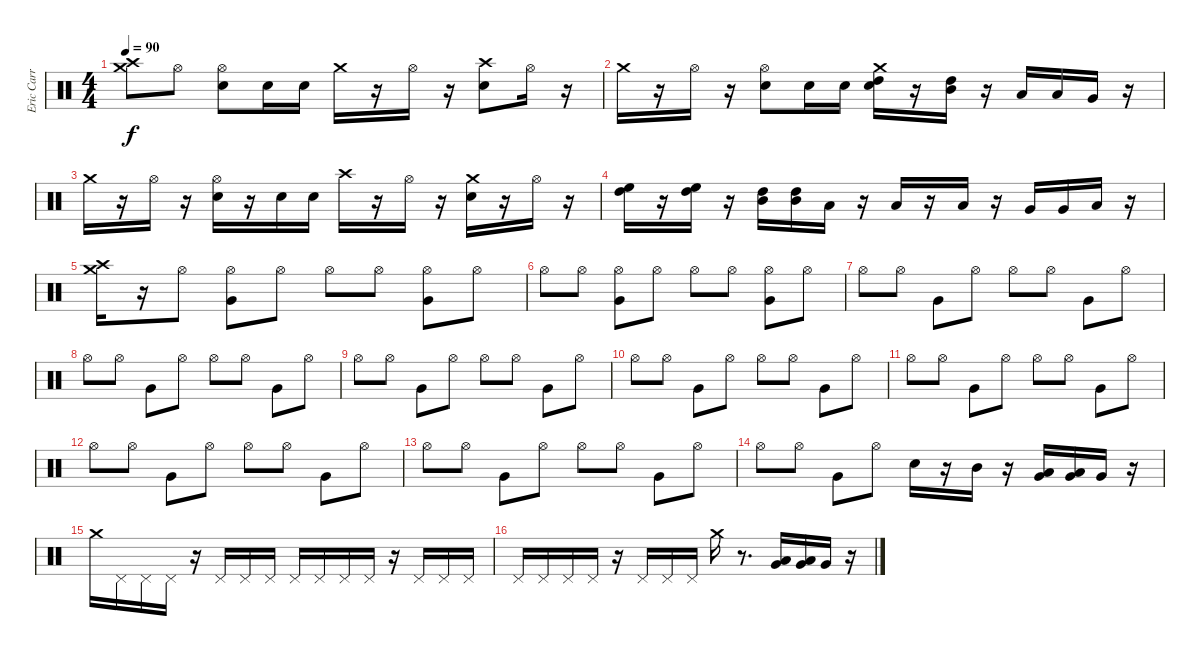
\track ("Eric Carr" "Eric Carr") {instrument percussion}
\staff {score}
\articulation defaults
\ts (4 4)
\tempo 90
\clef neutral
\ks c
("Crash medium (hit)" "Crash high (hit)").8{dy f} "Hi-Hat (open)".8 ("Hi-Hat (open)" "Electric Snare (hit)").8 "Electric Snare (hit)".16 "Electric Snare (hit)".16 "Crash medium (hit)".16 r.16 "Hi-Hat (open)".16 r.16 ("Crash high (hit)" "Electric Snare (hit)").8 "Hi-Hat (open)".16 r.16 |
"Crash medium (hit)".16 r.16 "Hi-Hat (open)".16 r.16 ("Hi-Hat (open)" "Electric Snare (hit)").8 "Electric Snare (hit)".16 "Electric Snare (hit)".16 ("Crash medium (hit)" "High Tom (hit)" "Electric Snare (hit)").16 r.16 ("High Tom (hit)" "Mid Tom (hit)").16 r.16 "Low Tom (hit)".16 "Low Tom (hit)".16 "Very Low Tom (hit)".16 r.16 |
"Crash medium (hit)".16 r.16 "Hi-Hat (open)".16 r.16 ("Hi-Hat (open)" "Electric Snare (hit)").16 r.16 "Electric Snare (hit)".16 "Electric Snare (hit)".16 "Crash high (hit)".16 r.16 "Hi-Hat (open)".16 r.16 ("Crash medium (hit)" "Electric Snare (hit)").16 r.16 "Hi-Hat (open)".16 r.16 |
("High Floor Tom (hit)" "High Tom (hit)").16 r.16 ("High Floor Tom (hit)" "High Tom (hit)").16 r.16 ("High Tom (hit)" "Mid Tom (hit)").16 ("High Tom (hit)" "Mid Tom (hit)").16 "Low Tom (hit)".16 r.16 "Low Tom (hit)".16 r.16 "Low Tom (hit)".16 r.16 "Very Low Tom (hit)".16 "Very Low Tom (hit)".16 "Low Floor Tom (hit)".16 r.16 |
("Crash medium (hit)" "Crash high (hit)").16 r.16 "Hi-Hat (open)".8 ("Hi-Hat (open)" "Very Low Tom (hit)").8 "Hi-Hat (open)".8 "Hi-Hat (open)".8 "Hi-Hat (open)".8 ("Hi-Hat (open)" "Very Low Tom (hit)").8 "Hi-Hat (open)".8 |
"Hi-Hat (open)".8 "Hi-Hat (open)".8 ("Hi-Hat (open)" "Very Low Tom (hit)").8 "Hi-Hat (open)".8 "Hi-Hat (open)".8 "Hi-Hat (open)".8 ("Hi-Hat (open)" "Very Low Tom (hit)").8 "Hi-Hat (open)".8 |
"Hi-Hat (open)".8 "Hi-Hat (open)".8 "Very Low Tom (hit)".8 "Hi-Hat (open)".8 "Hi-Hat (open)".8 "Hi-Hat (open)".8 "Very Low Tom (hit)".8 "Hi-Hat (open)".8 |
"Hi-Hat (open)".8 "Hi-Hat (open)".8 "Very Low Tom (hit)".8 "Hi-Hat (open)".8 "Hi-Hat (open)".8 "Hi-Hat (open)".8 "Very Low Tom (hit)".8 "Hi-Hat (open)".8 |
"Hi-Hat (open)".8 "Hi-Hat (open)".8 "Very Low Tom (hit)".8 "Hi-Hat (open)".8 "Hi-Hat (open)".8 "Hi-Hat (open)".8 "Very Low Tom (hit)".8 "Hi-Hat (open)".8 |
"Hi-Hat (open)".8 "Hi-Hat (open)".8 "Very Low Tom (hit)".8 "Hi-Hat (open)".8 "Hi-Hat (open)".8 "Hi-Hat (open)".8 "Very Low Tom (hit)".8 "Hi-Hat (open)".8 |
"Hi-Hat (open)".8 "Hi-Hat (open)".8 "Very Low Tom (hit)".8 "Hi-Hat (open)".8 "Hi-Hat (open)".8 "Hi-Hat (open)".8 "Very Low Tom (hit)".8 "Hi-Hat (open)".8 |
"Hi-Hat (open)".8 "Hi-Hat (open)".8 "Very Low Tom (hit)".8 "Hi-Hat (open)".8 "Hi-Hat (open)".8 "Hi-Hat (open)".8 "Very Low Tom (hit)".8 "Hi-Hat (open)".8 |
"Hi-Hat (open)".8 "Hi-Hat (open)".8 "Very Low Tom (hit)".8 "Hi-Hat (open)".8 "Hi-Hat (open)".8 "Hi-Hat (open)".8 "Very Low Tom (hit)".8 "Hi-Hat (open)".8 |
"Hi-Hat (open)".8 "Hi-Hat (open)".8 "Very Low Tom (hit)".8 "Hi-Hat (open)".8 "Electric Snare (hit)".16 r.16 "Mid Tom (hit)".16 r.16 ("Low Tom (hit)" "Very Low Tom (hit)").16 ("Low Tom (hit)" "Very Low Tom (hit)").16 "Very Low Tom (hit)".16 r.16 |
"Crash medium (hit)".16 "Pedal Hi-Hat (hit)".16 "Pedal Hi-Hat (hit)".16 "Pedal Hi-Hat (hit)".16 r.16 "Pedal Hi-Hat (hit)".16 "Pedal Hi-Hat (hit)".16 "Pedal Hi-Hat (hit)".16 "Pedal Hi-Hat (hit)".16 "Pedal Hi-Hat (hit)".16 "Pedal Hi-Hat (hit)".16 "Pedal Hi-Hat (hit)".16 r.16 "Pedal Hi-Hat (hit)".16 "Pedal Hi-Hat (hit)".16 "Pedal Hi-Hat (hit)".16 |
"Pedal Hi-Hat (hit)".16 "Pedal Hi-Hat (hit)".16 "Pedal Hi-Hat (hit)".16 "Pedal Hi-Hat (hit)".16 r.16 "Pedal Hi-Hat (hit)".16 "Pedal Hi-Hat (hit)".16 "Pedal Hi-Hat (hit)".16 "Crash medium (hit)".16 r.8{d} ("Low Tom (hit)" "Very Low Tom (hit)").16 ("Low Tom (hit)" "Very Low Tom (hit)").16 "Very Low Tom (hit)".16 r.16
